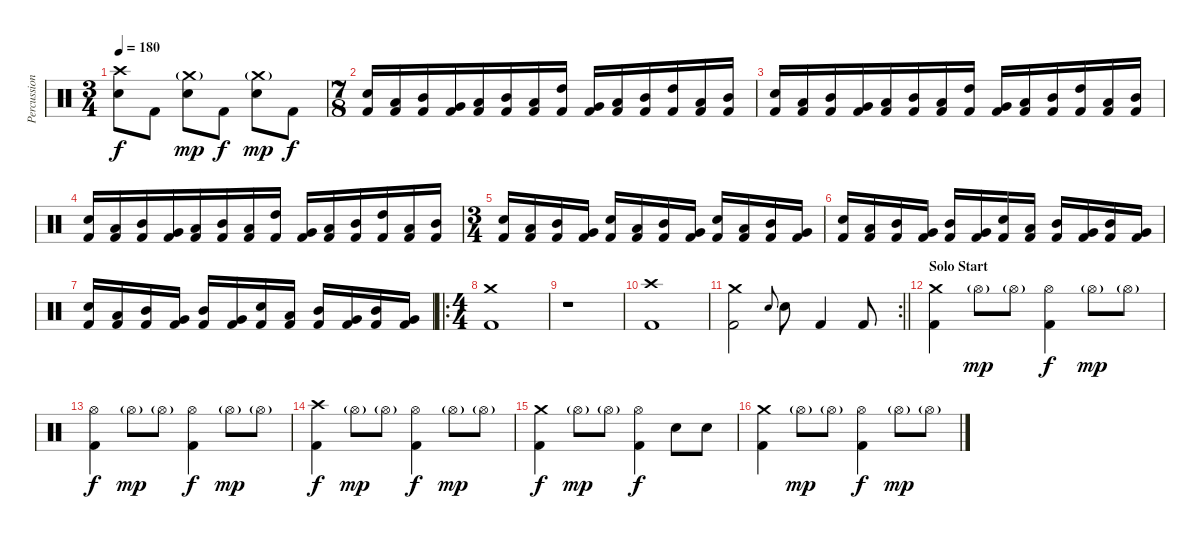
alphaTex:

\track ("Percussion" "Percussion") {instrument percussion}
\staff {score}
\articulation defaults
\ts (3 4)
\tempo 180
\clef neutral
\ks c
("Crash high (hit)" "Electric Snare (hit)").8{dy f} "Kick (hit) 2".8 ("Crash medium (hit)"{g} "Electric Snare (hit)").8{dy mp} "Kick (hit) 2".8{dy f} ("Crash medium (hit)"{g} "Electric Snare (hit)").8{dy mp} "Kick (hit) 2".8{dy f} |
\ts (7 8)
("Electric Snare (hit)" "Kick (hit) 2").16 ("Low Tom (hit)" "Kick (hit) 2").16 ("Mid Tom (hit)" "Kick (hit) 2").16 ("Very Low Tom (hit)" "Kick (hit) 2").16 ("Low Tom (hit)" "Kick (hit) 2").16 ("Mid Tom (hit)" "Kick (hit) 2").16 ("Low Tom (hit)" "Kick (hit) 2").16 ("High Tom (hit)" "Kick (hit) 2").16 ("Very Low Tom (hit)" "Kick (hit) 2").16 ("Low Tom (hit)" "Kick (hit) 2").16 ("Mid Tom (hit)" "Kick (hit) 2").16 ("High Tom (hit)" "Kick (hit) 2").16 ("Low Tom (hit)" "Kick (hit) 2").16 ("Mid Tom (hit)" "Kick (hit) 2").16 |
("Electric Snare (hit)" "Kick (hit) 2").16 ("Low Tom (hit)" "Kick (hit) 2").16 ("Mid Tom (hit)" "Kick (hit) 2").16 ("Very Low Tom (hit)" "Kick (hit) 2").16 ("Low Tom (hit)" "Kick (hit) 2").16 ("Mid Tom (hit)" "Kick (hit) 2").16 ("Low Tom (hit)" "Kick (hit) 2").16 ("High Tom (hit)" "Kick (hit) 2").16 ("Very Low Tom (hit)" "Kick (hit) 2").16 ("Low Tom (hit)" "Kick (hit) 2").16 ("Mid Tom (hit)" "Kick (hit) 2").16 ("High Tom (hit)" "Kick (hit) 2").16 ("Low Tom (hit)" "Kick (hit) 2").16 ("Mid Tom (hit)" "Kick (hit) 2").16 |
("Electric Snare (hit)" "Kick (hit) 2").16 ("Low Tom (hit)" "Kick (hit) 2").16 ("Mid Tom (hit)" "Kick (hit) 2").16 ("Very Low Tom (hit)" "Kick (hit) 2").16 ("Low Tom (hit)" "Kick (hit) 2").16 ("Mid Tom (hit)" "Kick (hit) 2").16 ("Low Tom (hit)" "Kick (hit) 2").16 ("High Tom (hit)" "Kick (hit) 2").16 ("Very Low Tom (hit)" "Kick (hit) 2").16 ("Low Tom (hit)" "Kick (hit) 2").16 ("Mid Tom (hit)" "Kick (hit) 2").16 ("High Tom (hit)" "Kick (hit) 2").16 ("Low Tom (hit)" "Kick (hit) 2").16 ("Mid Tom (hit)" "Kick (hit) 2").16 |
\ts (3 4)
("Electric Snare (hit)" "Kick (hit) 2").16 ("Low Tom (hit)" "Kick (hit) 2").16 ("Mid Tom (hit)" "Kick (hit) 2").16 ("Very Low Tom (hit)" "Kick (hit) 2").16 ("Electric Snare (hit)" "Kick (hit) 2").16 ("Low Tom (hit)" "Kick (hit) 2").16 ("Mid Tom (hit)" "Kick (hit) 2").16 ("Very Low Tom (hit)" "Kick (hit) 2").16 ("Electric Snare (hit)" "Kick (hit) 2").16 ("Low Tom (hit)" "Kick (hit) 2").16 ("Mid Tom (hit)" "Kick (hit) 2").16 ("Very Low Tom (hit)" "Kick (hit) 2").16 |
("Electric Snare (hit)" "Kick (hit) 2").16 ("Low Tom (hit)" "Kick (hit) 2").16 ("Mid Tom (hit)" "Kick (hit) 2").16 ("Very Low Tom (hit)" "Kick (hit) 2").16 ("Mid Tom (hit)" "Kick (hit) 2").16 ("Very Low Tom (hit)" "Kick (hit) 2").16 ("Electric Snare (hit)" "Kick (hit) 2").16 ("Low Tom (hit)" "Kick (hit) 2").16 ("Mid Tom (hit)" "Kick (hit) 2").16 ("Very Low Tom (hit)" "Kick (hit) 2").16 ("Mid Tom (hit)" "Kick (hit) 2").16 ("Very Low Tom (hit)" "Kick (hit) 2").16 |
("Electric Snare (hit)" "Kick (hit) 2").16 ("Low Tom (hit)" "Kick (hit) 2").16 ("Mid Tom (hit)" "Kick (hit) 2").16 ("Very Low Tom (hit)" "Kick (hit) 2").16 ("Mid Tom (hit)" "Kick (hit) 2").16 ("Very Low Tom (hit)" "Kick (hit) 2").16 ("Electric Snare (hit)" "Kick (hit) 2").16 ("Low Tom (hit)" "Kick (hit) 2").16 ("Mid Tom (hit)" "Kick (hit) 2").16 ("Very Low Tom (hit)" "Kick (hit) 2").16 ("Mid Tom (hit)" "Kick (hit) 2").16 ("Very Low Tom (hit)" "Kick (hit) 2").16 |
\ro
\ts (4 4)
("Crash medium (hit)" "Kick (hit) 2").1 |
r.1 |
("Crash high (hit)" "Kick (hit) 2").1 |
\rc 2
\barLineRight lightlight
("Crash medium (hit)" "Kick (hit) 2").2 "Electric Snare (hit)".8{gr onbeat} "Electric Snare (hit)".8 "Kick (hit) 2".4 "Kick (hit) 2".8 |
\section ("" "Solo Start")
("Crash medium (hit)" "Kick (hit) 2").4 "Hi-Hat (open)"{g}.8{dy mp} "Hi-Hat (open)"{g}.8 ("Hi-Hat (open)" "Kick (hit) 2").4{dy f} "Hi-Hat (open)"{g}.8{dy mp} "Hi-Hat (open)"{g}.8 |
("Hi-Hat (open)" "Kick (hit) 2").4{dy f} "Hi-Hat (open)"{g}.8{dy mp} "Hi-Hat (open)"{g}.8 ("Hi-Hat (open)" "Kick (hit) 2").4{dy f} "Hi-Hat (open)"{g}.8{dy mp} "Hi-Hat (open)"{g}.8 |
("Crash high (hit)" "Kick (hit) 2").4{dy f} "Hi-Hat (open)"{g}.8{dy mp} "Hi-Hat (open)"{g}.8 ("Hi-Hat (open)" "Kick (hit) 2").4{dy f} "Hi-Hat (open)"{g}.8{dy mp} "Hi-Hat (open)"{g}.8 |
("Crash medium (hit)" "Kick (hit) 2").4{dy f} "Hi-Hat (open)"{g}.8{dy mp} "Hi-Hat (open)"{g}.8 ("Hi-Hat (open)" "Kick (hit) 2").4{dy f} "Electric Snare (hit)".8 "Electric Snare (hit)".8 |
("Crash medium (hit)" "Kick (hit) 2").4 "Hi-Hat (open)"{g}.8{dy mp} "Hi-Hat (open)"{g}.8 ("Hi-Hat (open)" "Kick (hit) 2").4{dy f} "Hi-Hat (open)"{g}.8{dy mp} "Hi-Hat (open)"{g}.8
